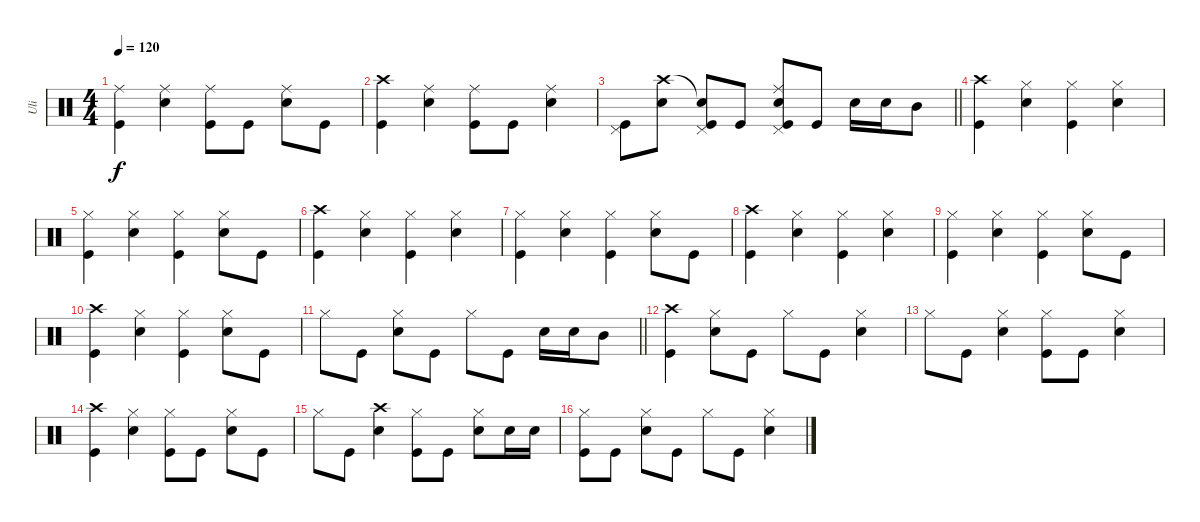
\track ("Uli" "Uli") {instrument percussion}
\staff {score}
\articulation defaults
\ts (4 4)
\tempo 120
\clef neutral
\ks aminor
("Ride (middle)" "Kick (hit)").4{dy f} ("Ride (middle)" "Snare (hit) 2").4 ("Ride (middle)" "Kick (hit)").8 "Kick (hit)".8 ("Ride (middle)" "Snare (hit) 2").8 "Kick (hit)".8 |
("Crash high (hit)" "Kick (hit)").4 ("Ride (middle)" "Snare (hit) 2").4 ("Ride (middle)" "Kick (hit)").8 "Kick (hit)".8 ("Ride (middle)" "Snare (hit) 2").4 |
\barLineRight lightlight
("Pedal Hi-Hat (hit)" "Kick (hit)").8 ("Crash high (hit)" "Snare (hit) 2").8 ("Snare (hit)"{t} "Pedal Hi-Hat (hit)" "Kick (hit)").8 "Kick (hit)".8 ("Ride (middle)" "Snare (hit) 2" "Pedal Hi-Hat (hit)" "Kick (hit)").8 "Kick (hit)".8 "Snare (hit) 2".16 "Snare (hit) 2".16 "Mid Tom (hit)".8 |
("Crash high (hit)" "Kick (hit)").4 ("Hi-Hat (closed)" "Snare (hit) 2").4 ("Hi-Hat (closed)" "Kick (hit)").4 ("Hi-Hat (closed)" "Snare (hit) 2").4 |
("Hi-Hat (closed)" "Kick (hit)").4 ("Hi-Hat (closed)" "Snare (hit) 2").4 ("Hi-Hat (closed)" "Kick (hit)").4 ("Hi-Hat (closed)" "Snare (hit) 2").8 "Kick (hit)".8 |
("Crash high (hit)" "Kick (hit)").4 ("Hi-Hat (closed)" "Snare (hit) 2").4 ("Hi-Hat (closed)" "Kick (hit)").4 ("Hi-Hat (closed)" "Snare (hit) 2").4 |
("Hi-Hat (closed)" "Kick (hit)").4 ("Hi-Hat (closed)" "Snare (hit) 2").4 ("Hi-Hat (closed)" "Kick (hit)").4 ("Hi-Hat (closed)" "Snare (hit) 2").8 "Kick (hit)".8 |
("Crash high (hit)" "Kick (hit)").4 ("Hi-Hat (closed)" "Snare (hit) 2").4 ("Hi-Hat (closed)" "Kick (hit)").4 ("Hi-Hat (closed)" "Snare (hit) 2").4 |
("Hi-Hat (closed)" "Kick (hit)").4 ("Hi-Hat (closed)" "Snare (hit) 2").4 ("Hi-Hat (closed)" "Kick (hit)").4 ("Hi-Hat (closed)" "Snare (hit) 2").8 "Kick (hit)".8 |
("Crash high (hit)" "Kick (hit)").4 ("Hi-Hat (closed)" "Snare (hit) 2").4 ("Hi-Hat (closed)" "Kick (hit)").4 ("Hi-Hat (closed)" "Snare (hit) 2").8 "Kick (hit)".8 |
\barLineRight lightlight "Hi-Hat (closed)".8 "Kick (hit)".8
("Hi-Hat (closed)" "Snare (hit) 2").8 "Kick (hit)".8 "Hi-Hat (closed)".8 "Kick (hit)".8 "Snare (hit) 2".16 "Snare (hit) 2".16 "Mid Tom (hit)".8 |
("Crash high (hit)" "Kick (hit)").4 ("Hi-Hat (closed)" "Snare (hit) 2").8 "Kick (hit)".8 "Hi-Hat (closed)".8 "Kick (hit)".8 ("Hi-Hat (closed)" "Snare (hit) 2").4 |
"Hi-Hat (closed)".8 "Kick (hit)".8 ("Hi-Hat (closed)" "Snare (hit) 2").4 ("Hi-Hat (closed)" "Kick (hit)").8 "Kick (hit)".8 ("Hi-Hat (closed)" "Snare (hit) 2").4 |
("Crash high (hit)" "Kick (hit)").4 ("Hi-Hat (closed)" "Snare (hit) 2").4 ("Hi-Hat (closed)" "Kick (hit)").8 "Kick (hit)".8 ("Hi-Hat (closed)" "Snare (hit) 2").8 "Kick (hit)".8 |
"Hi-Hat (closed)".8 "Kick (hit)".8 ("Crash high (hit)" "Snare (hit) 2").4 ("Hi-Hat (closed)" "Kick (hit)").8 "Kick (hit)".8 ("Hi-Hat (closed)" "Snare (hit) 2").8 "Snare (hit) 2".16 "Snare (hit) 2".16 |
("Hi-Hat (closed)" "Kick (hit)").8 "Kick (hit)".8 ("Hi-Hat (closed)" "Snare (hit) 2").8 "Kick (hit)".8 "Hi-Hat (closed)".8 "Kick (hit)".8 ("Hi-Hat (closed)" "Snare (hit) 2").4
